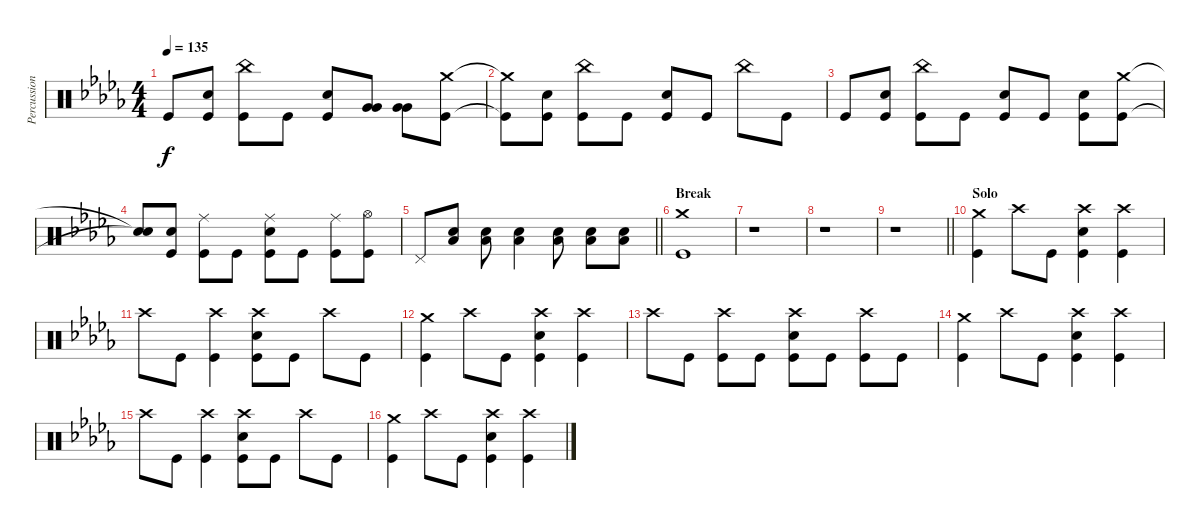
\track ("Percussion" "Percussion") {instrument percussion}
\staff {score}
\articulation defaults
\ts (4 4)
\tempo 135
\clef neutral
\ks db "Kick (hit)".8{dy f}
("Electric Snare (hit)" "Kick (hit)").8 ("China (hit)" "Kick (hit)").8 "Kick (hit)".8 ("Electric Snare (hit)" "Kick (hit)").8 ("Very Low Tom (hit)" "Very Low Tom (hit)").8 ("Very Low Tom (hit)" "Very Low Tom (hit)").8 ("Crash medium (hit)" "Kick (hit)").8 |
("Crash medium (hit)"{t} "Kick (hit)"{t}).8 ("Electric Snare (hit)" "Kick (hit)").8 ("China (hit)" "Kick (hit)").8 "Kick (hit)".8 ("Electric Snare (hit)" "Kick (hit)").8 "Kick (hit)".8 "China (hit)".8 "Kick (hit)".8 |
"Kick (hit)".8 ("Electric Snare (hit)" "Kick (hit)").8 ("China (hit)" "Kick (hit)").8 "Kick (hit)".8 ("Electric Snare (hit)" "Kick (hit)").8 "Kick (hit)".8 ("Electric Snare (hit)" "Kick (hit)").8 ("Crash medium (hit)" "Kick (hit)").8 |
("Snare (hit)"{t} "Snare (hit)"{t}).8 ("Electric Snare (hit)" "Kick (hit)").8 ("Ride (middle)" "Kick (hit)").8 "Kick (hit)".8 ("Ride (middle)" "Electric Snare (hit)" "Kick (hit)").8 "Kick (hit)".8 ("Ride (middle)" "Kick (hit)").8 ("Hi-Hat (open)" "Kick (hit)").8 |
\barLineRight lightlight "Pedal Hi-Hat (hit)".8
("Low Floor Tom (hit)" "Electric Snare (hit)").8 ("Low Floor Tom (hit)" "Electric Snare (hit)").8 ("Low Floor Tom (hit)" "Electric Snare (hit)").4 ("Low Floor Tom (hit)" "Electric Snare (hit)").8 ("Low Floor Tom (hit)" "Electric Snare (hit)").8 ("Low Floor Tom (hit)" "Electric Snare (hit)").8 |
\section ("" "Break")
("Crash medium (hit)" "Kick (hit)").1 |
r.1 |
r.1 |
\barLineRight lightlight
r.1 |
\section ("" "Solo")
("Crash medium (hit)" "Kick (hit)").4 "Crash high (hit)".8 "Kick (hit)".8 ("Crash high (hit)" "Electric Snare (hit)" "Kick (hit)").4 ("Crash high (hit)" "Kick (hit)").4 |
"Crash high (hit)".8 "Kick (hit)".8 ("Crash high (hit)" "Kick (hit)").4 ("Crash high (hit)" "Electric Snare (hit)" "Kick (hit)").8 "Kick (hit)".8 "Crash high (hit)".8 "Kick (hit)".8 |
("Crash medium (hit)" "Kick (hit)").4 "Crash high (hit)".8 "Kick (hit)".8 ("Crash high (hit)" "Electric Snare (hit)" "Kick (hit)").4 ("Crash high (hit)" "Kick (hit)").4 |
"Crash high (hit)".8 "Kick (hit)".8 ("Crash high (hit)" "Kick (hit)").8 "Kick (hit)".8 ("Crash high (hit)" "Electric Snare (hit)" "Kick (hit)").8 "Kick (hit)".8 ("Crash high (hit)" "Kick (hit)").8 "Kick (hit)".8 |
("Crash medium (hit)" "Kick (hit)").4 "Crash high (hit)".8 "Kick (hit)".8 ("Crash high (hit)" "Electric Snare (hit)" "Kick (hit)").4 ("Crash high (hit)" "Kick (hit)").4 |
"Crash high (hit)".8 "Kick (hit)".8 ("Crash high (hit)" "Kick (hit)").4 ("Crash high (hit)" "Electric Snare (hit)" "Kick (hit)").8 "Kick (hit)".8 "Crash high (hit)".8 "Kick (hit)".8 |
("Crash medium (hit)" "Kick (hit)").4 "Crash high (hit)".8 "Kick (hit)".8 ("Crash high (hit)" "Electric Snare (hit)" "Kick (hit)").4 ("Crash high (hit)" "Kick (hit)").4
